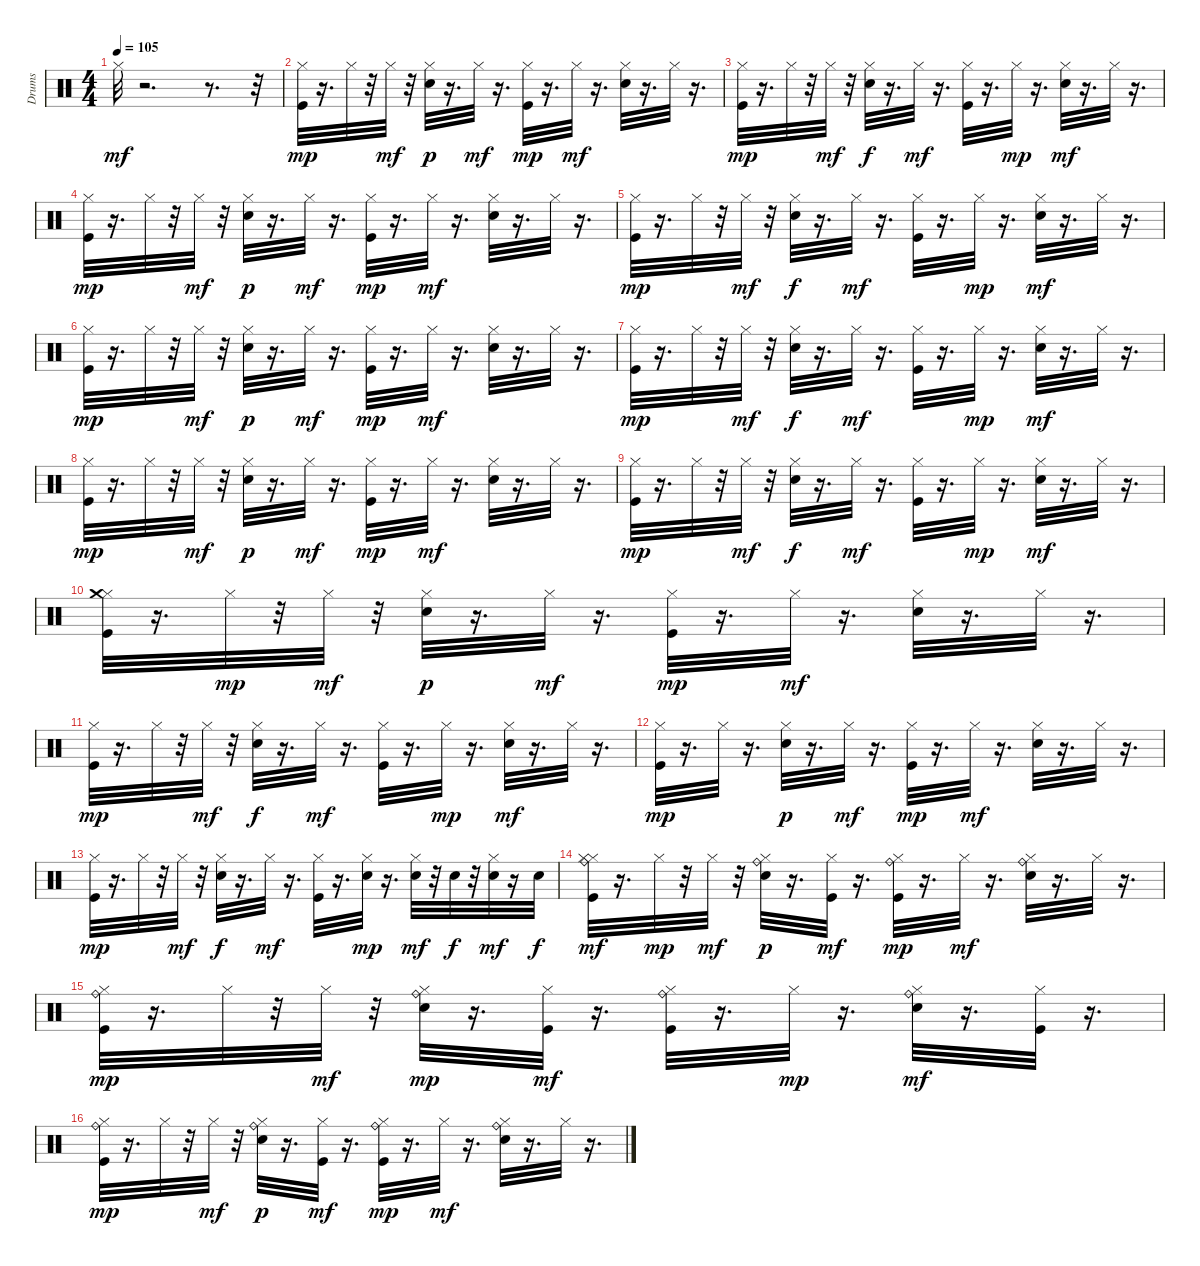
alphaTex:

\track ("Drums" "Drums") {instrument percussion}
\staff {score}
\articulation defaults
\ts (4 4)
\tempo 105
\clef neutral
\ks c "Hi-Hat (closed)".32{dy mf}
r.2{d} r.8{d} r.32 |
("Kick (hit)" "Hi-Hat (closed)").32{dy mp} r.16{d} "Hi-Hat (closed)".32 r.32 "Hi-Hat (closed)".32{dy mf} r.32 ("Snare (hit) 2" "Hi-Hat (closed)").32{dy p} r.16{d} "Hi-Hat (closed)".32{dy mf} r.16{d} ("Kick (hit)" "Hi-Hat (closed)").32{dy mp} r.16{d} "Hi-Hat (closed)".32{dy mf} r.16{d} ("Snare (hit) 2" "Hi-Hat (closed)").32 r.16{d} "Hi-Hat (closed)".32 r.16{d} |
("Kick (hit)" "Hi-Hat (closed)").32{dy mp} r.16{d} "Hi-Hat (closed)".32 r.32 "Hi-Hat (closed)".32{dy mf} r.32 ("Snare (hit) 2" "Hi-Hat (closed)").32{dy f} r.16{d} "Hi-Hat (closed)".32{dy mf} r.16{d} ("Kick (hit)" "Hi-Hat (closed)").32 r.16{d} "Hi-Hat (closed)".32{dy mp} r.16{d} ("Snare (hit) 2" "Hi-Hat (closed)").32{dy mf} r.16{d} "Hi-Hat (closed)".32 r.16{d} |
("Kick (hit)" "Hi-Hat (closed)").32{dy mp} r.16{d} "Hi-Hat (closed)".32 r.32 "Hi-Hat (closed)".32{dy mf} r.32 ("Snare (hit) 2" "Hi-Hat (closed)").32{dy p} r.16{d} "Hi-Hat (closed)".32{dy mf} r.16{d} ("Kick (hit)" "Hi-Hat (closed)").32{dy mp} r.16{d} "Hi-Hat (closed)".32{dy mf} r.16{d} ("Snare (hit) 2" "Hi-Hat (closed)").32 r.16{d} "Hi-Hat (closed)".32 r.16{d} |
("Kick (hit)" "Hi-Hat (closed)").32{dy mp} r.16{d} "Hi-Hat (closed)".32 r.32 "Hi-Hat (closed)".32{dy mf} r.32 ("Snare (hit) 2" "Hi-Hat (closed)").32{dy f} r.16{d} "Hi-Hat (closed)".32{dy mf} r.16{d} ("Kick (hit)" "Hi-Hat (closed)").32 r.16{d} "Hi-Hat (closed)".32{dy mp} r.16{d} ("Snare (hit) 2" "Hi-Hat (closed)").32{dy mf} r.16{d} "Hi-Hat (closed)".32 r.16{d} |
("Kick (hit)" "Hi-Hat (closed)").32{dy mp} r.16{d} "Hi-Hat (closed)".32 r.32 "Hi-Hat (closed)".32{dy mf} r.32 ("Snare (hit) 2" "Hi-Hat (closed)").32{dy p} r.16{d} "Hi-Hat (closed)".32{dy mf} r.16{d} ("Kick (hit)" "Hi-Hat (closed)").32{dy mp} r.16{d} "Hi-Hat (closed)".32{dy mf} r.16{d} ("Snare (hit) 2" "Hi-Hat (closed)").32 r.16{d} "Hi-Hat (closed)".32 r.16{d} |
("Kick (hit)" "Hi-Hat (closed)").32{dy mp} r.16{d} "Hi-Hat (closed)".32 r.32 "Hi-Hat (closed)".32{dy mf} r.32 ("Snare (hit) 2" "Hi-Hat (closed)").32{dy f} r.16{d} "Hi-Hat (closed)".32{dy mf} r.16{d} ("Kick (hit)" "Hi-Hat (closed)").32 r.16{d} "Hi-Hat (closed)".32{dy mp} r.16{d} ("Snare (hit) 2" "Hi-Hat (closed)").32{dy mf} r.16{d} "Hi-Hat (closed)".32 r.16{d} |
("Kick (hit)" "Hi-Hat (closed)").32{dy mp} r.16{d} "Hi-Hat (closed)".32 r.32 "Hi-Hat (closed)".32{dy mf} r.32 ("Snare (hit) 2" "Hi-Hat (closed)").32{dy p} r.16{d} "Hi-Hat (closed)".32{dy mf} r.16{d} ("Kick (hit)" "Hi-Hat (closed)").32{dy mp} r.16{d} "Hi-Hat (closed)".32{dy mf} r.16{d} ("Snare (hit) 2" "Hi-Hat (closed)").32 r.16{d} "Hi-Hat (closed)".32 r.16{d} |
("Kick (hit)" "Hi-Hat (closed)").32{dy mp} r.16{d} "Hi-Hat (closed)".32 r.32 "Hi-Hat (closed)".32{dy mf} r.32 ("Snare (hit) 2" "Hi-Hat (closed)").32{dy f} r.16{d} "Hi-Hat (closed)".32{dy mf} r.16{d} ("Kick (hit)" "Hi-Hat (closed)").32 r.16{d} "Hi-Hat (closed)".32{dy mp} r.16{d} ("Snare (hit) 2" "Hi-Hat (closed)").32{dy mf} r.16{d} "Hi-Hat (closed)".32 r.16{d} |
("Kick (hit)" "Hi-Hat (closed)" "Crash medium (hit)").32 r.16{d} "Hi-Hat (closed)".32{dy mp} r.32 "Hi-Hat (closed)".32{dy mf} r.32 ("Snare (hit) 2" "Hi-Hat (closed)").32{dy p} r.16{d} "Hi-Hat (closed)".32{dy mf} r.16{d} ("Kick (hit)" "Hi-Hat (closed)").32{dy mp} r.16{d} "Hi-Hat (closed)".32{dy mf} r.16{d} ("Snare (hit) 2" "Hi-Hat (closed)").32 r.16{d} "Hi-Hat (closed)".32 r.16{d} |
("Kick (hit)" "Hi-Hat (closed)").32{dy mp} r.16{d} "Hi-Hat (closed)".32 r.32 "Hi-Hat (closed)".32{dy mf} r.32 ("Snare (hit) 2" "Hi-Hat (closed)").32{dy f} r.16{d} "Hi-Hat (closed)".32{dy mf} r.16{d} ("Kick (hit)" "Hi-Hat (closed)").32 r.16{d} "Hi-Hat (closed)".32{dy mp} r.16{d} ("Snare (hit) 2" "Hi-Hat (closed)").32{dy mf} r.16{d} "Hi-Hat (closed)".32 r.16{d} |
("Kick (hit)" "Hi-Hat (closed)").32{dy mp} r.16{d} "Hi-Hat (closed)".32 r.16{d} ("Snare (hit) 2" "Hi-Hat (closed)").32{dy p} r.16{d} "Hi-Hat (closed)".32{dy mf} r.16{d} ("Kick (hit)" "Hi-Hat (closed)").32{dy mp} r.16{d} "Hi-Hat (closed)".32{dy mf} r.16{d} ("Snare (hit) 2" "Hi-Hat (closed)").32 r.16{d} "Hi-Hat (closed)".32 r.16{d} |
("Kick (hit)" "Hi-Hat (closed)").32{dy mp} r.16{d} "Hi-Hat (closed)".32 r.32 "Hi-Hat (closed)".32{dy mf} r.32 ("Snare (hit) 2" "Hi-Hat (closed)").32{dy f} r.16{d} "Hi-Hat (closed)".32{dy mf} r.16{d} ("Kick (hit)" "Hi-Hat (closed)").32 r.16{d} ("Snare (hit) 2" "Hi-Hat (closed)").32{dy mp} r.16{d} ("Snare (hit) 2" "Hi-Hat (closed)").32{dy mf} r.32 "Snare (hit) 2".32{dy f} r.32 ("Snare (hit) 2" "Hi-Hat (closed)").32{dy mf} r.16 "Snare (hit) 2".32{dy f} |
("Ride (bell)" "Kick (hit)" "Hi-Hat (closed)" "Hi-Hat (closed)").32{dy mf} r.16{d} "Hi-Hat (closed)".32{dy mp} r.32 "Hi-Hat (closed)".32{dy mf} r.32 ("Snare (hit) 2" "Ride (bell)" "Hi-Hat (closed)").32{dy p} r.16{d} ("Kick (hit)" "Hi-Hat (closed)").32{dy mf} r.16{d} ("Ride (bell)" "Kick (hit)" "Hi-Hat (closed)").32{dy mp} r.16{d} "Hi-Hat (closed)".32{dy mf} r.16{d} ("Snare (hit) 2" "Ride (bell)" "Hi-Hat (closed)").32 r.16{d} "Hi-Hat (closed)".32 r.16{d} |
("Ride (bell)" "Kick (hit)" "Hi-Hat (closed)").32{dy mp} r.16{d} "Hi-Hat (closed)".32 r.32 "Hi-Hat (closed)".32{dy mf} r.32 ("Snare (hit) 2" "Ride (bell)" "Hi-Hat (closed)").32{dy mp} r.16{d} ("Kick (hit)" "Hi-Hat (closed)").32{dy mf} r.16{d} ("Ride (bell)" "Kick (hit)" "Hi-Hat (closed)").32 r.16{d} "Hi-Hat (closed)".32{dy mp} r.16{d} ("Snare (hit) 2" "Ride (bell)" "Hi-Hat (closed)").32{dy mf} r.16{d} ("Kick (hit)" "Hi-Hat (closed)").32 r.16{d} |
("Ride (bell)" "Kick (hit)" "Hi-Hat (closed)").32{dy mp} r.16{d} "Hi-Hat (closed)".32 r.32 "Hi-Hat (closed)".32{dy mf} r.32 ("Snare (hit) 2" "Ride (bell)" "Hi-Hat (closed)").32{dy p} r.16{d} ("Kick (hit)" "Hi-Hat (closed)").32{dy mf} r.16{d} ("Ride (bell)" "Kick (hit)" "Hi-Hat (closed)").32{dy mp} r.16{d} "Hi-Hat (closed)".32{dy mf} r.16{d} ("Snare (hit) 2" "Ride (bell)" "Hi-Hat (closed)").32 r.16{d} "Hi-Hat (closed)".32 r.16{d}
